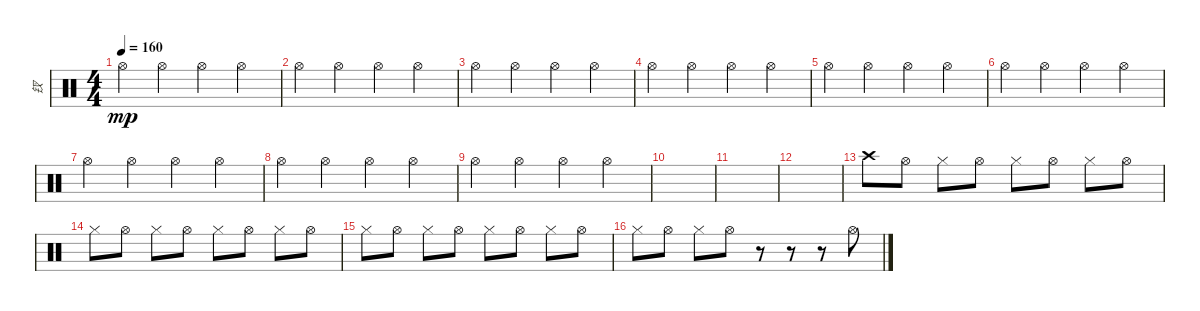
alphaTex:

\track ("钗" "钗") {instrument percussion}
\staff {score}
\articulation defaults
\ts (4 4)
\tempo 160
\clef neutral
\ks c "Hi-Hat (open)".4{dy mp} "Hi-Hat (open)".4 "Hi-Hat (open)".4 "Hi-Hat (open)".4
|
"Hi-Hat (open)".4 "Hi-Hat (open)".4 "Hi-Hat (open)".4 "Hi-Hat (open)".4 |
"Hi-Hat (open)".4 "Hi-Hat (open)".4 "Hi-Hat (open)".4 "Hi-Hat (open)".4 |
"Hi-Hat (open)".4 "Hi-Hat (open)".4 "Hi-Hat (open)".4 "Hi-Hat (open)".4 |
"Hi-Hat (open)".4 "Hi-Hat (open)".4 "Hi-Hat (open)".4 "Hi-Hat (open)".4 |
"Hi-Hat (open)".4 "Hi-Hat (open)".4 "Hi-Hat (open)".4 "Hi-Hat (open)".4 |
"Hi-Hat (open)".4 "Hi-Hat (open)".4 "Hi-Hat (open)".4 "Hi-Hat (open)".4 |
"Hi-Hat (open)".4 "Hi-Hat (open)".4 "Hi-Hat (open)".4 "Hi-Hat (open)".4 |
"Hi-Hat (open)".4 "Hi-Hat (open)".4 "Hi-Hat (open)".4 "Hi-Hat (open)".4 |
|
|
|
"Crash high (hit)".8 "Hi-Hat (open)".8 "Hi-Hat (closed)".8 "Hi-Hat (open)".8 "Hi-Hat (closed)".8 "Hi-Hat (open)".8 "Hi-Hat (closed)".8 "Hi-Hat (open)".8 |
"Hi-Hat (closed)".8 "Hi-Hat (open)".8 "Hi-Hat (closed)".8 "Hi-Hat (open)".8 "Hi-Hat (closed)".8 "Hi-Hat (open)".8 "Hi-Hat (closed)".8 "Hi-Hat (open)".8 |
"Hi-Hat (closed)".8 "Hi-Hat (open)".8 "Hi-Hat (closed)".8 "Hi-Hat (open)".8 "Hi-Hat (closed)".8 "Hi-Hat (open)".8 "Hi-Hat (closed)".8 "Hi-Hat (open)".8 |
"Hi-Hat (closed)".8 "Hi-Hat (open)".8 "Hi-Hat (closed)".8 "Hi-Hat (open)".8 r.8 r.8 r.8 "Hi-Hat (open)".8
